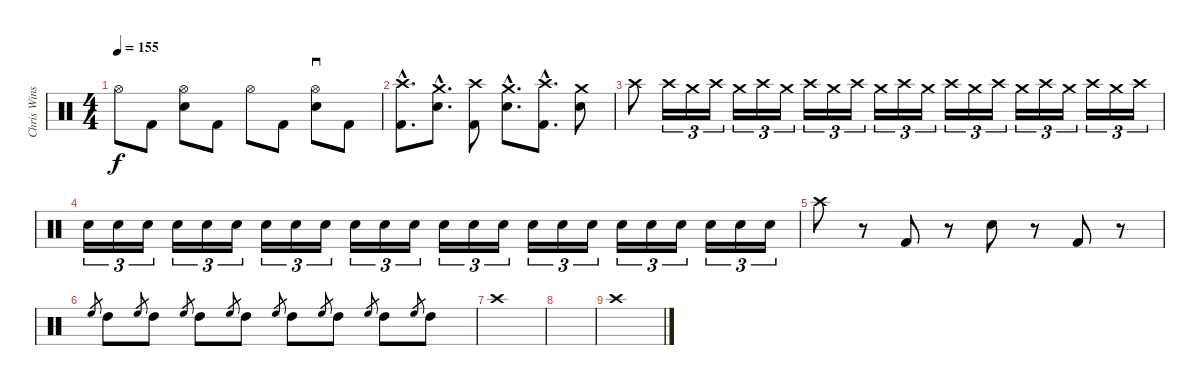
\track ("Chris Winship (Drums)" "Chris Wins") {instrument percussion}
\staff {score}
\articulation defaults
\ts (4 4)
\tempo 155
\clef neutral
\ks c "Hi-Hat (open)".8{dy f} "Kick (hit) 2".8
("Hi-Hat (open)" "Snare (hit) 2").8 "Kick (hit) 2".8 "Hi-Hat (open)".8 "Kick (hit) 2".8 ("Hi-Hat (open)" "Snare (hit) 2").8{sd} "Kick (hit) 2".8 |
("Crash high (hit)"{hac} "Kick (hit) 2"{hac}).8{d} ("Crash medium (hit)"{hac} "Snare (hit) 2"{hac}).8{d} ("Crash high (hit)" "Kick (hit) 2").8 ("Crash medium (hit)"{hac} "Snare (hit) 2"{hac}).8{d} ("Crash high (hit)"{hac} "Kick (hit) 2"{hac}).8{d} ("Crash medium (hit)" "Snare (hit) 2").8 |
"Crash high (hit)".8 "Crash high (hit)".16{tu (3 2)} "Crash medium (hit)".16{tu (3 2)} "Crash high (hit)".16{tu (3 2)} "Crash medium (hit)".16{tu (3 2)} "Crash high (hit)".16{tu (3 2)} "Crash medium (hit)".16{tu (3 2)} "Crash high (hit)".16{tu (3 2)} "Crash medium (hit)".16{tu (3 2)} "Crash high (hit)".16{tu (3 2)} "Crash medium (hit)".16{tu (3 2)} "Crash high (hit)".16{tu (3 2)} "Crash medium (hit)".16{tu (3 2)} "Crash high (hit)".16{tu (3 2)} "Crash medium (hit)".16{tu (3 2)} "Crash high (hit)".16{tu (3 2)} "Crash medium (hit)".16{tu (3 2)} "Crash high (hit)".16{tu (3 2)} "Crash medium (hit)".16{tu (3 2)} "Crash high (hit)".16{tu (3 2)} "Crash medium (hit)".16{tu (3 2)} "Crash high (hit)".16{tu (3 2)} |
"Snare (hit) 2".16{tu (3 2)} "Electric Snare (hit)".16{tu (3 2)} "Snare (hit) 2".16{tu (3 2)} "Electric Snare (hit)".16{tu (3 2)} "Snare (hit) 2".16{tu (3 2)} "Electric Snare (hit)".16{tu (3 2)} "Snare (hit) 2".16{tu (3 2)} "Electric Snare (hit)".16{tu (3 2)} "Snare (hit) 2".16{tu (3 2)} "Electric Snare (hit)".16{tu (3 2)} "Snare (hit) 2".16{tu (3 2)} "Electric Snare (hit)".16{tu (3 2)} "Snare (hit) 2".16{tu (3 2)} "Electric Snare (hit)".16{tu (3 2)} "Snare (hit) 2".16{tu (3 2)} "Electric Snare (hit)".16{tu (3 2)} "Snare (hit) 2".16{tu (3 2)} "Electric Snare (hit)".16{tu (3 2)} "Snare (hit) 2".16{tu (3 2)} "Electric Snare (hit)".16{tu (3 2)} "Snare (hit) 2".16{tu (3 2)} "Electric Snare (hit)".16{tu (3 2)} "Snare (hit) 2".16{tu (3 2)} "Electric Snare (hit)".16{tu (3 2)} |
"Crash high (hit)".8 r.8 "Kick (hit) 2".8 r.8 "Snare (hit) 2".8 r.8 "Kick (hit) 2".8 r.8 |
"High Floor Tom (hit)".8{gr} "High Tom (hit)".8 "High Floor Tom (hit)".8{gr} "High Tom (hit)".8 "High Floor Tom (hit)".8{gr} "High Tom (hit)".8 "High Floor Tom (hit)".8{gr} "High Tom (hit)".8 "High Floor Tom (hit)".8{gr} "High Tom (hit)".8 "High Floor Tom (hit)".8{gr} "High Tom (hit)".8 "High Floor Tom (hit)".8{gr} "High Tom (hit)".8 "High Floor Tom (hit)".8{gr} "High Tom (hit)".8 |
"Crash high (hit)".1 |
|
"Crash high (hit)".1
